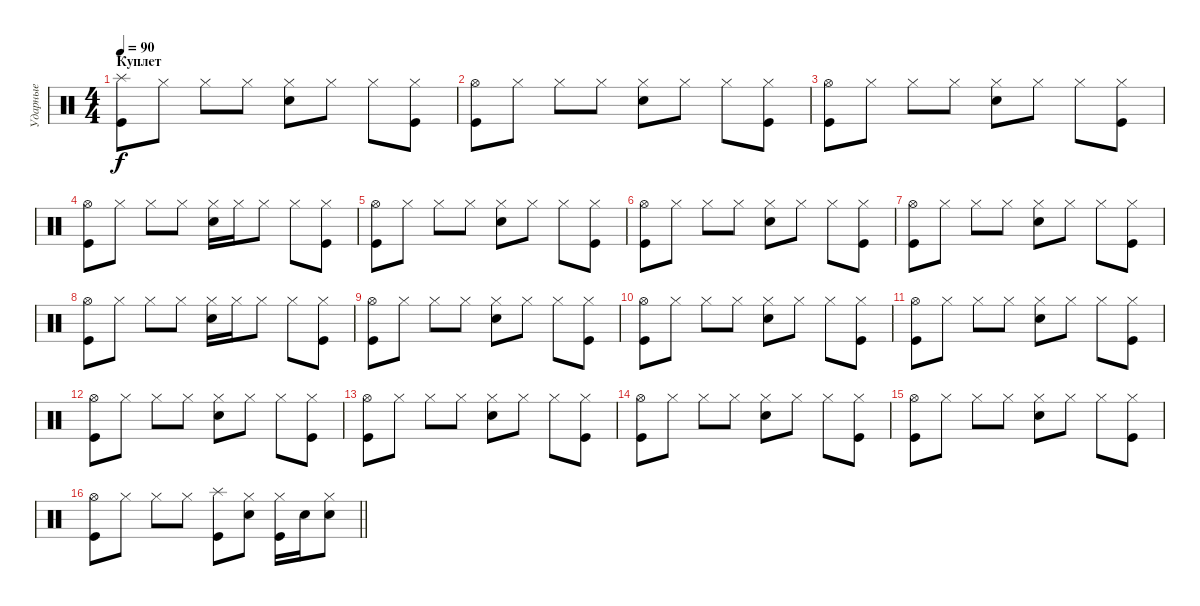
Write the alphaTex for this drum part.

\track ("Ударные" "Ударные") {instrument percussion}
\staff {score}
\articulation defaults
\ts (4 4)
\section ("" "Куплет")
\tempo 90
\clef neutral
\ks c
("Kick (hit)" "Splash (hit)").8{dy f} "Hi-Hat (closed)".8 "Hi-Hat (closed)".8 "Hi-Hat (closed)".8 ("Hi-Hat (closed)" "Electric Snare (hit)").8 "Hi-Hat (closed)".8 "Hi-Hat (closed)".8 ("Hi-Hat (closed)" "Kick (hit)").8 |
("Hi-Hat (open)" "Kick (hit)").8 "Hi-Hat (closed)".8 "Hi-Hat (closed)".8 "Hi-Hat (closed)".8 ("Hi-Hat (closed)" "Electric Snare (hit)").8 "Hi-Hat (closed)".8 "Hi-Hat (closed)".8 ("Hi-Hat (closed)" "Kick (hit)").8 |
("Hi-Hat (open)" "Kick (hit)").8 "Hi-Hat (closed)".8 "Hi-Hat (closed)".8 "Hi-Hat (closed)".8 ("Hi-Hat (closed)" "Electric Snare (hit)").8 "Hi-Hat (closed)".8 "Hi-Hat (closed)".8 ("Hi-Hat (closed)" "Kick (hit)").8 |
("Hi-Hat (open)" "Kick (hit)").8 "Hi-Hat (closed)".8 "Hi-Hat (closed)".8 "Hi-Hat (closed)".8 ("Hi-Hat (closed)" "Electric Snare (hit)").16 "Hi-Hat (closed)".16 "Hi-Hat (closed)".8 "Hi-Hat (closed)".8 ("Hi-Hat (closed)" "Kick (hit)").8 |
("Hi-Hat (open)" "Kick (hit)").8 "Hi-Hat (closed)".8 "Hi-Hat (closed)".8 "Hi-Hat (closed)".8 ("Hi-Hat (closed)" "Electric Snare (hit)").8 "Hi-Hat (closed)".8 "Hi-Hat (closed)".8 ("Hi-Hat (closed)" "Kick (hit)").8 |
("Hi-Hat (open)" "Kick (hit)").8 "Hi-Hat (closed)".8 "Hi-Hat (closed)".8 "Hi-Hat (closed)".8 ("Hi-Hat (closed)" "Electric Snare (hit)").8 "Hi-Hat (closed)".8 "Hi-Hat (closed)".8 ("Hi-Hat (closed)" "Kick (hit)").8 |
("Hi-Hat (open)" "Kick (hit)").8 "Hi-Hat (closed)".8 "Hi-Hat (closed)".8 "Hi-Hat (closed)".8 ("Hi-Hat (closed)" "Electric Snare (hit)").8 "Hi-Hat (closed)".8 "Hi-Hat (closed)".8 ("Hi-Hat (closed)" "Kick (hit)").8 |
("Hi-Hat (open)" "Kick (hit)").8 "Hi-Hat (closed)".8 "Hi-Hat (closed)".8 "Hi-Hat (closed)".8 ("Hi-Hat (closed)" "Electric Snare (hit)").16 "Hi-Hat (closed)".16 "Hi-Hat (closed)".8 "Hi-Hat (closed)".8 ("Hi-Hat (closed)" "Kick (hit)").8 |
("Hi-Hat (open)" "Kick (hit)").8 "Hi-Hat (closed)".8 "Hi-Hat (closed)".8 "Hi-Hat (closed)".8 ("Hi-Hat (closed)" "Electric Snare (hit)").8 "Hi-Hat (closed)".8 "Hi-Hat (closed)".8 ("Hi-Hat (closed)" "Kick (hit)").8 |
("Hi-Hat (open)" "Kick (hit)").8 "Hi-Hat (closed)".8 "Hi-Hat (closed)".8 "Hi-Hat (closed)".8 ("Hi-Hat (closed)" "Electric Snare (hit)").8 "Hi-Hat (closed)".8 "Hi-Hat (closed)".8 ("Hi-Hat (closed)" "Kick (hit)").8 |
("Hi-Hat (open)" "Kick (hit)").8 "Hi-Hat (closed)".8 "Hi-Hat (closed)".8 "Hi-Hat (closed)".8 ("Hi-Hat (closed)" "Electric Snare (hit)").8 "Hi-Hat (closed)".8 "Hi-Hat (closed)".8 ("Hi-Hat (closed)" "Kick (hit)").8 |
("Hi-Hat (open)" "Kick (hit)").8 "Hi-Hat (closed)".8 "Hi-Hat (closed)".8 "Hi-Hat (closed)".8 ("Hi-Hat (closed)" "Electric Snare (hit)").8 "Hi-Hat (closed)".8 "Hi-Hat (closed)".8 ("Hi-Hat (closed)" "Kick (hit)").8 |
("Hi-Hat (open)" "Kick (hit)").8 "Hi-Hat (closed)".8 "Hi-Hat (closed)".8 "Hi-Hat (closed)".8 ("Hi-Hat (closed)" "Electric Snare (hit)").8 "Hi-Hat (closed)".8 "Hi-Hat (closed)".8 ("Hi-Hat (closed)" "Kick (hit)").8 |
("Hi-Hat (open)" "Kick (hit)").8 "Hi-Hat (closed)".8 "Hi-Hat (closed)".8 "Hi-Hat (closed)".8 ("Hi-Hat (closed)" "Electric Snare (hit)").8 "Hi-Hat (closed)".8 "Hi-Hat (closed)".8 ("Hi-Hat (closed)" "Kick (hit)").8 |
("Hi-Hat (open)" "Kick (hit)").8 "Hi-Hat (closed)".8 "Hi-Hat (closed)".8 "Hi-Hat (closed)".8 ("Hi-Hat (closed)" "Electric Snare (hit)").8 "Hi-Hat (closed)".8 "Hi-Hat (closed)".8 ("Hi-Hat (closed)" "Kick (hit)").8 |
\barLineRight lightlight
("Hi-Hat (open)" "Kick (hit)").8 "Hi-Hat (closed)".8 "Hi-Hat (closed)".8 "Hi-Hat (closed)".8 ("Kick (hit)" "Splash (hit)").8 ("Hi-Hat (closed)" "Electric Snare (hit)").8 ("Hi-Hat (closed)" "Kick (hit)").16 "Electric Snare (hit)".16 ("Hi-Hat (closed)" "Electric Snare (hit)").8
